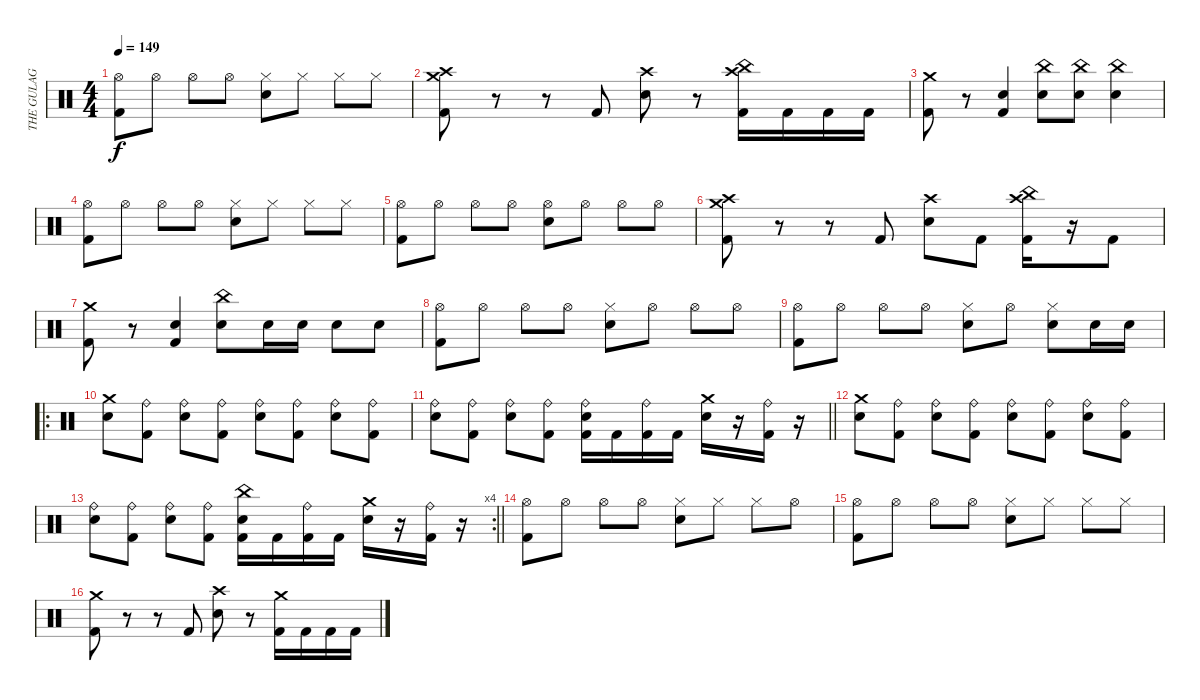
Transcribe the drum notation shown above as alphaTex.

\track ("THE GULAG" "THE GULAG") {instrument percussion}
\staff {score}
\articulation defaults
\ts (4 4)
\tempo 149
\clef neutral
\ks c
("Hi-Hat (open)" "Kick (hit) 2").8{dy f} "Hi-Hat (open)".8 "Hi-Hat (open)".8 "Hi-Hat (open)".8 ("Hi-Hat (closed)" "Snare (hit) 2").8 "Hi-Hat (closed)".8 "Hi-Hat (closed)".8 "Hi-Hat (closed)".8 |
("Crash high (hit)" "Crash medium (hit)" "Kick (hit) 2").8 r.8 r.8 "Kick (hit) 2".8 ("Crash high (hit)" "Snare (hit) 2").8 r.8 ("Crash high (hit)" "China (hit)" "Kick (hit) 2").16 "Kick (hit) 2".16 "Kick (hit) 2".16 "Kick (hit) 2".16 |
("Crash medium (hit)" "Kick (hit) 2").8 r.8 ("Snare (hit) 2" "Kick (hit) 2").4 ("China (hit)" "Snare (hit) 2").8 ("China (hit)" "Snare (hit) 2").8 ("China (hit)" "Snare (hit) 2").4 |
("Hi-Hat (open)" "Kick (hit) 2").8 "Hi-Hat (open)".8 "Hi-Hat (open)".8 "Hi-Hat (open)".8 ("Hi-Hat (closed)" "Snare (hit) 2").8 "Hi-Hat (closed)".8 "Hi-Hat (closed)".8 "Hi-Hat (closed)".8 |
("Hi-Hat (open)" "Kick (hit) 2").8 "Hi-Hat (open)".8 "Hi-Hat (open)".8 "Hi-Hat (open)".8 ("Hi-Hat (open)" "Snare (hit) 2").8 "Hi-Hat (open)".8 "Hi-Hat (open)".8 "Hi-Hat (open)".8 |
("Crash high (hit)" "Crash medium (hit)" "Kick (hit) 2").8 r.8 r.8 "Kick (hit) 2".8 ("Crash high (hit)" "Snare (hit) 2").8 "Kick (hit) 2".8 ("Crash high (hit)" "China (hit)" "Kick (hit) 2").16 r.16 "Kick (hit) 2".8 |
("Crash medium (hit)" "Kick (hit) 2").8 r.8 ("Snare (hit) 2" "Kick (hit) 2").4 ("China (hit)" "Snare (hit) 2").8 "Snare (hit) 2".16 "Snare (hit) 2".16 "Snare (hit) 2".8 "Snare (hit) 2".8 |
("Hi-Hat (open)" "Kick (hit) 2").8 "Hi-Hat (open)".8 "Hi-Hat (open)".8 "Hi-Hat (open)".8 ("Hi-Hat (closed)" "Snare (hit) 2").8 "Hi-Hat (open)".8 "Hi-Hat (open)".8 "Hi-Hat (open)".8 |
("Hi-Hat (open)" "Kick (hit) 2").8 "Hi-Hat (open)".8 "Hi-Hat (open)".8 "Hi-Hat (open)".8 ("Hi-Hat (closed)" "Snare (hit) 2").8 "Hi-Hat (open)".8 ("Hi-Hat (closed)" "Snare (hit) 2").8 "Snare (hit) 2".16 "Snare (hit) 2".16 |
\ro
("Crash medium (hit)" "Snare (hit) 2").8 ("Ride (bell)" "Kick (hit) 2").8 ("Ride (bell)" "Snare (hit) 2").8 ("Ride (bell)" "Kick (hit) 2").8 ("Ride (bell)" "Snare (hit) 2").8 ("Ride (bell)" "Kick (hit) 2").8 ("Ride (bell)" "Snare (hit) 2").8 ("Ride (bell)" "Kick (hit) 2").8 |
\barLineRight lightlight
("Ride (bell)" "Snare (hit) 2").8 ("Ride (bell)" "Kick (hit) 2").8 ("Ride (bell)" "Snare (hit) 2").8 ("Ride (bell)" "Kick (hit) 2").8 ("Ride (bell)" "Snare (hit) 2" "Kick (hit) 2").16 "Kick (hit) 2".16 ("Ride (bell)" "Kick (hit) 2").16 "Kick (hit) 2".16 ("Crash medium (hit)" "Snare (hit) 2").16 r.16 ("Ride (bell)" "Kick (hit) 2").16 r.16 |
("Crash medium (hit)" "Snare (hit) 2").8 ("Ride (bell)" "Kick (hit) 2").8 ("Ride (bell)" "Snare (hit) 2").8 ("Ride (bell)" "Kick (hit) 2").8 ("Ride (bell)" "Snare (hit) 2").8 ("Ride (bell)" "Kick (hit) 2").8 ("Ride (bell)" "Snare (hit) 2").8 ("Ride (bell)" "Kick (hit) 2").8 |
\rc 4
\barLineRight lightlight
("Ride (bell)" "Snare (hit) 2").8 ("Ride (bell)" "Kick (hit) 2").8 ("Ride (bell)" "Snare (hit) 2").8 ("Ride (bell)" "Kick (hit) 2").8 ("China (hit)" "Snare (hit) 2" "Kick (hit) 2").16 "Kick (hit) 2".16 ("Ride (bell)" "Kick (hit) 2").16 "Kick (hit) 2".16 ("Crash medium (hit)" "Snare (hit) 2").16 r.16 ("Ride (bell)" "Kick (hit) 2").16 r.16 |
("Hi-Hat (open)" "Kick (hit) 2").8 "Hi-Hat (open)".8 "Hi-Hat (open)".8 "Hi-Hat (open)".8 ("Hi-Hat (closed)" "Snare (hit) 2").8 "Hi-Hat (closed)".8 "Hi-Hat (closed)".8 "Hi-Hat (open)".8 |
("Hi-Hat (open)" "Kick (hit) 2").8 "Hi-Hat (open)".8 "Hi-Hat (open)".8 "Hi-Hat (open)".8 ("Hi-Hat (closed)" "Snare (hit) 2").8 "Hi-Hat (closed)".8 "Hi-Hat (closed)".8 "Hi-Hat (closed)".8 |
("Crash medium (hit)" "Kick (hit) 2").8 r.8 r.8 "Kick (hit) 2".8 ("Crash high (hit)" "Snare (hit) 2").8 r.8 ("Crash medium (hit)" "Kick (hit) 2").16 "Kick (hit) 2".16 "Kick (hit) 2".16 "Kick (hit) 2".16
